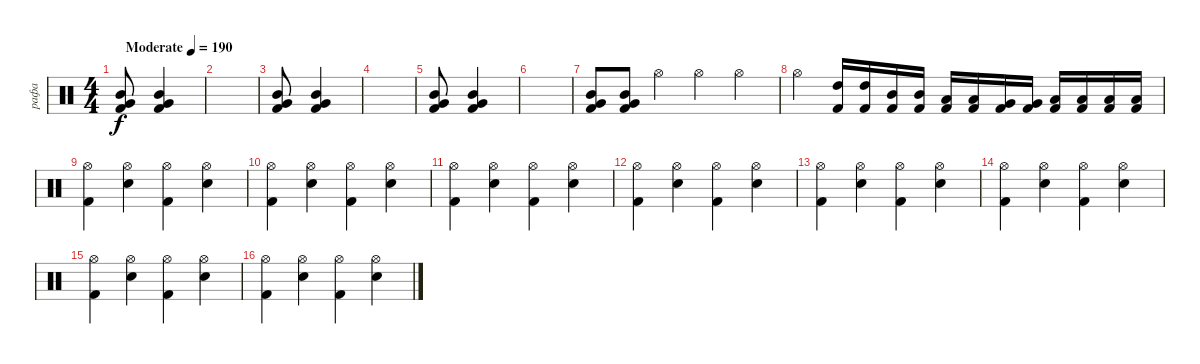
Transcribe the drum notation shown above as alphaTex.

\track ("рафа" "рафа") {instrument percussion}
\staff {score}
\articulation defaults
\ts (4 4)
\tempo (190 "Moderate")
\clef neutral
\ks c
("Kick (hit) 2" "Very Low Tom (hit)" "Mid Tom (hit)").8{dy f} ("Kick (hit) 2" "Very Low Tom (hit)" "Mid Tom (hit)").4 |
|
("Kick (hit) 2" "Very Low Tom (hit)" "Mid Tom (hit)").8 ("Kick (hit) 2" "Very Low Tom (hit)" "Mid Tom (hit)").4 |
|
("Kick (hit) 2" "Very Low Tom (hit)" "Mid Tom (hit)").8 ("Kick (hit) 2" "Very Low Tom (hit)" "Mid Tom (hit)").4 |
|
("Kick (hit) 2" "Very Low Tom (hit)" "Mid Tom (hit)").8 ("Kick (hit) 2" "Very Low Tom (hit)" "Mid Tom (hit)").8 "Hi-Hat (open)".4 "Hi-Hat (open)".4 "Hi-Hat (open)".4 |
"Hi-Hat (open)".4 ("High Tom (hit)" "Kick (hit) 2").16 ("High Tom (hit)" "Kick (hit) 2").16 ("Mid Tom (hit)" "Kick (hit) 2").16 ("Mid Tom (hit)" "Kick (hit) 2").16 ("Low Tom (hit)" "Kick (hit) 2").16 ("Low Tom (hit)" "Kick (hit) 2").16 ("Very Low Tom (hit)" "Kick (hit) 2").16 ("Very Low Tom (hit)" "Kick (hit) 2").16 ("Low Floor Tom (hit)" "Kick (hit) 2").16 ("Low Floor Tom (hit)" "Kick (hit) 2").16 ("Low Floor Tom (hit)" "Kick (hit) 2").16 ("Low Floor Tom (hit)" "Kick (hit) 2").16 |
("Kick (hit) 2" "Hi-Hat (open)").4 ("Snare (hit) 2" "Hi-Hat (open)").4 ("Kick (hit) 2" "Hi-Hat (open)").4 ("Snare (hit) 2" "Hi-Hat (open)").4 |
("Kick (hit) 2" "Hi-Hat (open)").4 ("Snare (hit) 2" "Hi-Hat (open)").4 ("Kick (hit) 2" "Hi-Hat (open)").4 ("Snare (hit) 2" "Hi-Hat (open)").4 |
("Kick (hit) 2" "Hi-Hat (open)").4 ("Snare (hit) 2" "Hi-Hat (open)").4 ("Kick (hit) 2" "Hi-Hat (open)").4 ("Snare (hit) 2" "Hi-Hat (open)").4 |
("Kick (hit) 2" "Hi-Hat (open)").4 ("Snare (hit) 2" "Hi-Hat (open)").4 ("Kick (hit) 2" "Hi-Hat (open)").4 ("Snare (hit) 2" "Hi-Hat (open)").4 |
("Kick (hit) 2" "Hi-Hat (open)").4 ("Snare (hit) 2" "Hi-Hat (open)").4 ("Kick (hit) 2" "Hi-Hat (open)").4 ("Snare (hit) 2" "Hi-Hat (open)").4 |
("Kick (hit) 2" "Hi-Hat (open)").4 ("Snare (hit) 2" "Hi-Hat (open)").4 ("Kick (hit) 2" "Hi-Hat (open)").4 ("Snare (hit) 2" "Hi-Hat (open)").4 |
("Kick (hit) 2" "Hi-Hat (open)").4 ("Snare (hit) 2" "Hi-Hat (open)").4 ("Kick (hit) 2" "Hi-Hat (open)").4 ("Snare (hit) 2" "Hi-Hat (open)").4 |
("Kick (hit) 2" "Hi-Hat (open)").4 ("Snare (hit) 2" "Hi-Hat (open)").4 ("Kick (hit) 2" "Hi-Hat (open)").4 ("Snare (hit) 2" "Hi-Hat (open)").4
